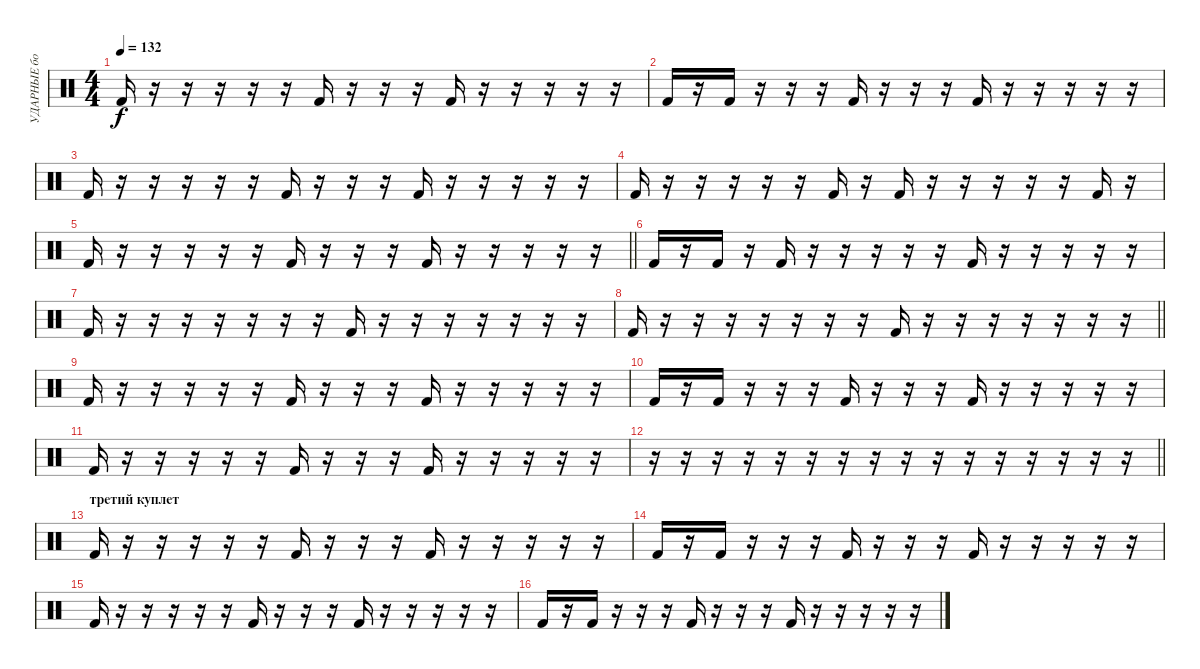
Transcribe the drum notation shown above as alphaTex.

\track ("УДАРНЫЕ бочка" "УДАРНЫЕ бо") {instrument percussion}
\staff {score}
\articulation defaults
\ts (4 4)
\tempo 132
\clef neutral
\ks c "Kick (hit) 2".16{dy f}
r.16 r.16 r.16 r.16 r.16 "Kick (hit) 2".16 r.16 r.16 r.16 "Kick (hit) 2".16 r.16 r.16 r.16 r.16 r.16 |
"Kick (hit) 2".16 r.16 "Kick (hit) 2".16 r.16 r.16 r.16 "Kick (hit) 2".16 r.16 r.16 r.16 "Kick (hit) 2".16 r.16 r.16 r.16 r.16 r.16 |
"Kick (hit) 2".16 r.16 r.16 r.16 r.16 r.16 "Kick (hit) 2".16 r.16 r.16 r.16 "Kick (hit) 2".16 r.16 r.16 r.16 r.16 r.16 |
"Kick (hit) 2".16 r.16 r.16 r.16 r.16 r.16 "Kick (hit) 2".16 r.16 "Kick (hit) 2".16 r.16 r.16 r.16 r.16 r.16 "Kick (hit) 2".16 r.16 |
\barLineRight lightlight "Kick (hit) 2".16
r.16 r.16 r.16 r.16 r.16 "Kick (hit) 2".16 r.16 r.16 r.16 "Kick (hit) 2".16 r.16 r.16 r.16 r.16 r.16 |
"Kick (hit) 2".16 r.16 "Kick (hit) 2".16 r.16 "Kick (hit) 2".16 r.16 r.16 r.16 r.16 r.16 "Kick (hit) 2".16 r.16 r.16 r.16 r.16 r.16 |
"Kick (hit) 2".16 r.16 r.16 r.16 r.16 r.16 r.16 r.16 "Kick (hit) 2".16 r.16 r.16 r.16 r.16 r.16 r.16 r.16 |
\barLineRight lightlight "Kick (hit) 2".16
r.16 r.16 r.16 r.16 r.16 r.16 r.16 "Kick (hit) 2".16 r.16 r.16 r.16 r.16 r.16 r.16 r.16 |
"Kick (hit) 2".16 r.16 r.16 r.16 r.16 r.16 "Kick (hit) 2".16 r.16 r.16 r.16 "Kick (hit) 2".16 r.16 r.16 r.16 r.16 r.16 |
"Kick (hit) 2".16 r.16 "Kick (hit) 2".16 r.16 r.16 r.16 "Kick (hit) 2".16 r.16 r.16 r.16 "Kick (hit) 2".16 r.16 r.16 r.16 r.16 r.16 |
"Kick (hit) 2".16 r.16 r.16 r.16 r.16 r.16 "Kick (hit) 2".16 r.16 r.16 r.16 "Kick (hit) 2".16 r.16 r.16 r.16 r.16 r.16 |
\barLineRight lightlight
r.16 r.16 r.16 r.16 r.16 r.16 r.16 r.16 r.16 r.16 r.16 r.16 r.16 r.16 r.16 r.16 |
\section ("" "третий куплет ")
"Kick (hit) 2".16 r.16 r.16 r.16 r.16 r.16 "Kick (hit) 2".16 r.16 r.16 r.16 "Kick (hit) 2".16 r.16 r.16 r.16 r.16 r.16 |
"Kick (hit) 2".16 r.16 "Kick (hit) 2".16 r.16 r.16 r.16 "Kick (hit) 2".16 r.16 r.16 r.16 "Kick (hit) 2".16 r.16 r.16 r.16 r.16 r.16 |
"Kick (hit) 2".16 r.16 r.16 r.16 r.16 r.16 "Kick (hit) 2".16 r.16 r.16 r.16 "Kick (hit) 2".16 r.16 r.16 r.16 r.16 r.16 |
"Kick (hit) 2".16 r.16 "Kick (hit) 2".16 r.16 r.16 r.16 "Kick (hit) 2".16 r.16 r.16 r.16 "Kick (hit) 2".16 r.16 r.16 r.16 r.16 r.16
